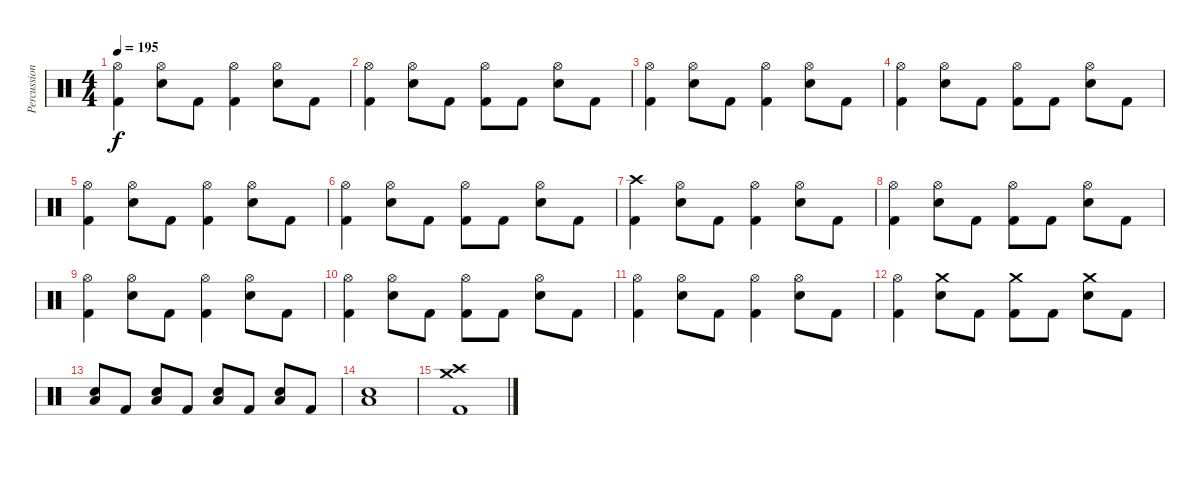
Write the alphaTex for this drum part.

\track ("Percussions" "Percussion") {instrument percussion}
\staff {score}
\articulation defaults
\ts (4 4)
\tempo 195
\clef neutral
\ks c
("Hi-Hat (open)" "Kick (hit) 2").4{dy f} ("Hi-Hat (open)" "Snare (hit) 2").8 "Kick (hit) 2".8 ("Hi-Hat (open)" "Kick (hit) 2").4 ("Hi-Hat (open)" "Snare (hit) 2").8 "Kick (hit) 2".8 |
("Hi-Hat (open)" "Kick (hit) 2").4 ("Hi-Hat (open)" "Snare (hit) 2").8 "Kick (hit) 2".8 ("Hi-Hat (open)" "Kick (hit) 2").8 "Kick (hit) 2".8 ("Hi-Hat (open)" "Snare (hit) 2").8 "Kick (hit) 2".8 |
("Hi-Hat (open)" "Kick (hit) 2").4 ("Hi-Hat (open)" "Snare (hit) 2").8 "Kick (hit) 2".8 ("Hi-Hat (open)" "Kick (hit) 2").4 ("Hi-Hat (open)" "Snare (hit) 2").8 "Kick (hit) 2".8 |
("Hi-Hat (open)" "Kick (hit) 2").4 ("Hi-Hat (open)" "Snare (hit) 2").8 "Kick (hit) 2".8 ("Hi-Hat (open)" "Kick (hit) 2").8 "Kick (hit) 2".8 ("Hi-Hat (open)" "Snare (hit) 2").8 "Kick (hit) 2".8 |
("Hi-Hat (open)" "Kick (hit) 2").4 ("Hi-Hat (open)" "Snare (hit) 2").8 "Kick (hit) 2".8 ("Hi-Hat (open)" "Kick (hit) 2").4 ("Hi-Hat (open)" "Snare (hit) 2").8 "Kick (hit) 2".8 |
("Hi-Hat (open)" "Kick (hit) 2").4 ("Hi-Hat (open)" "Snare (hit) 2").8 "Kick (hit) 2".8 ("Hi-Hat (open)" "Kick (hit) 2").8 "Kick (hit) 2".8 ("Hi-Hat (open)" "Snare (hit) 2").8 "Kick (hit) 2".8 |
("Crash high (hit)" "Kick (hit) 2").4 ("Hi-Hat (open)" "Snare (hit) 2").8 "Kick (hit) 2".8 ("Hi-Hat (open)" "Kick (hit) 2").4 ("Hi-Hat (open)" "Snare (hit) 2").8 "Kick (hit) 2".8 |
("Hi-Hat (open)" "Kick (hit) 2").4 ("Hi-Hat (open)" "Snare (hit) 2").8 "Kick (hit) 2".8 ("Hi-Hat (open)" "Kick (hit) 2").8 "Kick (hit) 2".8 ("Hi-Hat (open)" "Snare (hit) 2").8 "Kick (hit) 2".8 |
("Hi-Hat (open)" "Kick (hit) 2").4 ("Hi-Hat (open)" "Snare (hit) 2").8 "Kick (hit) 2".8 ("Hi-Hat (open)" "Kick (hit) 2").4 ("Hi-Hat (open)" "Snare (hit) 2").8 "Kick (hit) 2".8 |
("Hi-Hat (open)" "Kick (hit) 2").4 ("Hi-Hat (open)" "Snare (hit) 2").8 "Kick (hit) 2".8 ("Hi-Hat (open)" "Kick (hit) 2").8 "Kick (hit) 2".8 ("Hi-Hat (open)" "Snare (hit) 2").8 "Kick (hit) 2".8 |
("Hi-Hat (open)" "Kick (hit) 2").4 ("Hi-Hat (open)" "Snare (hit) 2").8 "Kick (hit) 2".8 ("Hi-Hat (open)" "Kick (hit) 2").4 ("Hi-Hat (open)" "Snare (hit) 2").8 "Kick (hit) 2".8 |
("Hi-Hat (open)" "Kick (hit) 2").4 ("Crash medium (hit)" "Snare (hit) 2").8 "Kick (hit) 2".8 ("Crash medium (hit)" "Kick (hit) 2").8 "Kick (hit) 2".8 ("Crash medium (hit)" "Snare (hit) 2").8 "Kick (hit) 2".8 |
("Snare (hit) 2" "Low Tom (hit)").8 "Kick (hit) 2".8 ("Snare (hit) 2" "Low Tom (hit)").8 "Kick (hit) 2".8 ("Snare (hit) 2" "Low Tom (hit)").8 "Kick (hit) 2".8 ("Snare (hit) 2" "Low Tom (hit)").8 "Kick (hit) 2".8 |
("Snare (hit) 2" "Low Tom (hit)").1 |
("Crash high (hit)" "Crash medium (hit)" "Kick (hit) 2").1
